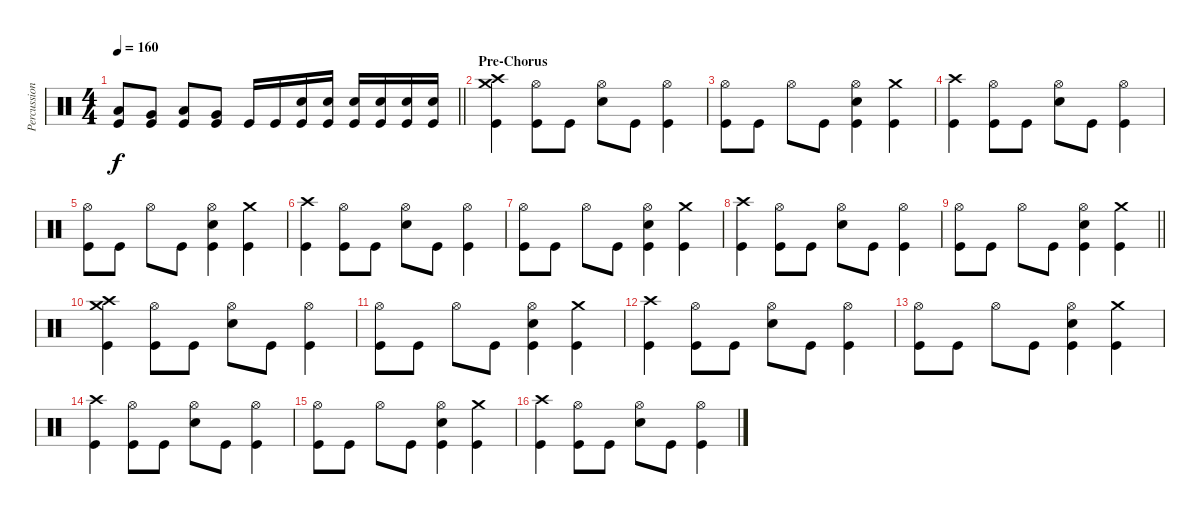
\track ("Percussion" "Percussion") {instrument percussion}
\staff {score}
\articulation defaults
\ts (4 4)
\tempo 160
\clef neutral
\barLineRight lightlight
\ks c
("Low Tom (hit)" "Kick (hit)").8{dy f} ("Very Low Tom (hit)" "Kick (hit)").8 ("Low Tom (hit)" "Kick (hit)").8 ("Very Low Tom (hit)" "Kick (hit)").8 "Kick (hit)".16 "Kick (hit)".16 ("Electric Snare (hit)" "Kick (hit)").16 ("Electric Snare (hit)" "Kick (hit)").16 ("Electric Snare (hit)" "Kick (hit)").16 ("Electric Snare (hit)" "Kick (hit)").16 ("Electric Snare (hit)" "Kick (hit)").16 ("Electric Snare (hit)" "Kick (hit)").16 |
\section ("" "Pre-Chorus")
("Crash high (hit)" "Crash medium (hit)" "Kick (hit)").4 ("Hi-Hat (open)" "Kick (hit)").8 "Kick (hit)".8 ("Hi-Hat (open)" "Electric Snare (hit)").8 "Kick (hit)".8 ("Hi-Hat (open)" "Kick (hit)").4 |
("Hi-Hat (open)" "Kick (hit)").8 "Kick (hit)".8 "Hi-Hat (open)".8 "Kick (hit)".8 ("Hi-Hat (open)" "Electric Snare (hit)" "Kick (hit)").4 ("Crash medium (hit)" "Kick (hit)").4 |
("Crash high (hit)" "Kick (hit)").4 ("Hi-Hat (open)" "Kick (hit)").8 "Kick (hit)".8 ("Hi-Hat (open)" "Electric Snare (hit)").8 "Kick (hit)".8 ("Hi-Hat (open)" "Kick (hit)").4 |
("Hi-Hat (open)" "Kick (hit)").8 "Kick (hit)".8 "Hi-Hat (open)".8 "Kick (hit)".8 ("Hi-Hat (open)" "Electric Snare (hit)" "Kick (hit)").4 ("Crash medium (hit)" "Kick (hit)").4 |
("Crash high (hit)" "Kick (hit)").4 ("Hi-Hat (open)" "Kick (hit)").8 "Kick (hit)".8 ("Hi-Hat (open)" "Electric Snare (hit)").8 "Kick (hit)".8 ("Hi-Hat (open)" "Kick (hit)").4 |
("Hi-Hat (open)" "Kick (hit)").8 "Kick (hit)".8 "Hi-Hat (open)".8 "Kick (hit)".8 ("Hi-Hat (open)" "Electric Snare (hit)" "Kick (hit)").4 ("Crash medium (hit)" "Kick (hit)").4 |
("Crash high (hit)" "Kick (hit)").4 ("Hi-Hat (open)" "Kick (hit)").8 "Kick (hit)".8 ("Hi-Hat (open)" "Electric Snare (hit)").8 "Kick (hit)".8 ("Hi-Hat (open)" "Kick (hit)").4 |
\barLineRight lightlight
("Hi-Hat (open)" "Kick (hit)").8 "Kick (hit)".8 "Hi-Hat (open)".8 "Kick (hit)".8 ("Hi-Hat (open)" "Electric Snare (hit)" "Kick (hit)").4 ("Crash medium (hit)" "Kick (hit)").4 |
("Crash high (hit)" "Crash medium (hit)" "Kick (hit)").4 ("Hi-Hat (open)" "Kick (hit)").8 "Kick (hit)".8 ("Hi-Hat (open)" "Electric Snare (hit)").8 "Kick (hit)".8 ("Hi-Hat (open)" "Kick (hit)").4 |
("Hi-Hat (open)" "Kick (hit)").8 "Kick (hit)".8 "Hi-Hat (open)".8 "Kick (hit)".8 ("Hi-Hat (open)" "Electric Snare (hit)" "Kick (hit)").4 ("Crash medium (hit)" "Kick (hit)").4 |
("Crash high (hit)" "Kick (hit)").4 ("Hi-Hat (open)" "Kick (hit)").8 "Kick (hit)".8 ("Hi-Hat (open)" "Electric Snare (hit)").8 "Kick (hit)".8 ("Hi-Hat (open)" "Kick (hit)").4 |
("Hi-Hat (open)" "Kick (hit)").8 "Kick (hit)".8 "Hi-Hat (open)".8 "Kick (hit)".8 ("Hi-Hat (open)" "Electric Snare (hit)" "Kick (hit)").4 ("Crash medium (hit)" "Kick (hit)").4 |
("Crash high (hit)" "Kick (hit)").4 ("Hi-Hat (open)" "Kick (hit)").8 "Kick (hit)".8 ("Hi-Hat (open)" "Electric Snare (hit)").8 "Kick (hit)".8 ("Hi-Hat (open)" "Kick (hit)").4 |
("Hi-Hat (open)" "Kick (hit)").8 "Kick (hit)".8 "Hi-Hat (open)".8 "Kick (hit)".8 ("Hi-Hat (open)" "Electric Snare (hit)" "Kick (hit)").4 ("Crash medium (hit)" "Kick (hit)").4 |
("Crash high (hit)" "Kick (hit)").4 ("Hi-Hat (open)" "Kick (hit)").8 "Kick (hit)".8 ("Hi-Hat (open)" "Electric Snare (hit)").8 "Kick (hit)".8 ("Hi-Hat (open)" "Kick (hit)").4
